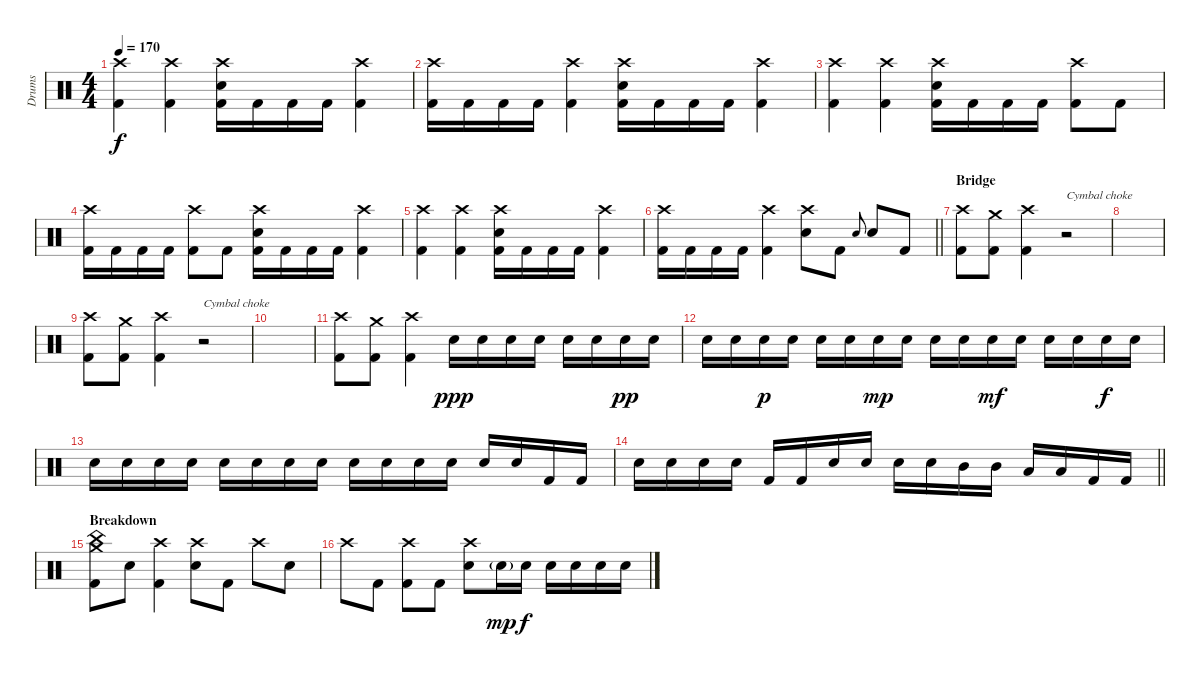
\track ("Drums" "Drums") {instrument percussion}
\staff {score}
\articulation defaults
\ts (4 4)
\tempo 170
\clef neutral
\ks c
("Crash high (hit)" "Kick (hit) 2").4{dy f} ("Crash high (hit)" "Kick (hit) 2").4 ("Crash high (hit)" "Electric Snare (hit)" "Kick (hit) 2").16 "Kick (hit) 2".16 "Kick (hit) 2".16 "Kick (hit) 2".16 ("Crash high (hit)" "Kick (hit) 2").4 |
("Crash high (hit)" "Kick (hit) 2").16 "Kick (hit) 2".16 "Kick (hit) 2".16 "Kick (hit) 2".16 ("Crash high (hit)" "Kick (hit) 2").4 ("Crash high (hit)" "Electric Snare (hit)" "Kick (hit) 2").16 "Kick (hit) 2".16 "Kick (hit) 2".16 "Kick (hit) 2".16 ("Crash high (hit)" "Kick (hit) 2").4 |
("Crash high (hit)" "Kick (hit) 2").4 ("Crash high (hit)" "Kick (hit) 2").4 ("Crash high (hit)" "Electric Snare (hit)" "Kick (hit) 2").16 "Kick (hit) 2".16 "Kick (hit) 2".16 "Kick (hit) 2".16 ("Crash high (hit)" "Kick (hit) 2").8 "Kick (hit) 2".8 |
("Crash high (hit)" "Kick (hit) 2").16 "Kick (hit) 2".16 "Kick (hit) 2".16 "Kick (hit) 2".16 ("Crash high (hit)" "Kick (hit) 2").8 "Kick (hit) 2".8 ("Crash high (hit)" "Electric Snare (hit)" "Kick (hit) 2").16 "Kick (hit) 2".16 "Kick (hit) 2".16 "Kick (hit) 2".16 ("Crash high (hit)" "Kick (hit) 2").4 |
("Crash high (hit)" "Kick (hit) 2").4 ("Crash high (hit)" "Kick (hit) 2").4 ("Crash high (hit)" "Electric Snare (hit)" "Kick (hit) 2").16 "Kick (hit) 2".16 "Kick (hit) 2".16 "Kick (hit) 2".16 ("Crash high (hit)" "Kick (hit) 2").4 |
\barLineRight lightlight
("Crash high (hit)" "Kick (hit) 2").16 "Kick (hit) 2".16 "Kick (hit) 2".16 "Kick (hit) 2".16 ("Crash high (hit)" "Kick (hit) 2").4 ("Crash high (hit)" "Electric Snare (hit)").8 "Kick (hit) 2".8 "Electric Snare (hit)".8{gr onbeat} "Electric Snare (hit)".8 "Kick (hit) 2".8 |
\section ("" "Bridge")
("Crash high (hit)" "Kick (hit) 2").8 ("Crash medium (hit)" "Kick (hit) 2").8 ("Crash high (hit)" "Kick (hit) 2").4 r.2{txt "Cymbal choke" volume 0} |
|
("Crash high (hit)" "Kick (hit) 2").8{volume 13} ("Crash medium (hit)" "Kick (hit) 2").8 ("Crash high (hit)" "Kick (hit) 2").4 r.2{txt "Cymbal choke" volume 0} |
|
("Crash high (hit)" "Kick (hit) 2").8{volume 13} ("Crash medium (hit)" "Kick (hit) 2").8 ("Crash high (hit)" "Kick (hit) 2").4 "Electric Snare (hit)".16{dy ppp} "Electric Snare (hit)".16 "Electric Snare (hit)".16 "Electric Snare (hit)".16 "Electric Snare (hit)".16 "Electric Snare (hit)".16 "Electric Snare (hit)".16{dy pp} "Electric Snare (hit)".16 |
"Electric Snare (hit)".16 "Electric Snare (hit)".16 "Electric Snare (hit)".16{dy p} "Electric Snare (hit)".16 "Electric Snare (hit)".16 "Electric Snare (hit)".16 "Electric Snare (hit)".16{dy mp} "Electric Snare (hit)".16 "Electric Snare (hit)".16 "Electric Snare (hit)".16 "Electric Snare (hit)".16{dy mf} "Electric Snare (hit)".16 "Electric Snare (hit)".16 "Electric Snare (hit)".16 "Electric Snare (hit)".16{dy f} "Electric Snare (hit)".16 |
"Electric Snare (hit)".16 "Electric Snare (hit)".16 "Electric Snare (hit)".16 "Electric Snare (hit)".16 "Electric Snare (hit)".16 "Electric Snare (hit)".16 "Electric Snare (hit)".16 "Electric Snare (hit)".16 "Electric Snare (hit)".16 "Electric Snare (hit)".16 "Electric Snare (hit)".16 "Electric Snare (hit)".16 "Electric Snare (hit)".16 "Electric Snare (hit)".16 "Kick (hit) 2".16 "Kick (hit) 2".16 |
\barLineRight lightlight "Electric Snare (hit)".16 "Electric Snare (hit)".16 "Electric Snare (hit)".16 "Electric Snare (hit)".16 "Kick (hit) 2".16 "Kick (hit) 2".16 "Electric Snare (hit)".16 "Electric Snare (hit)".16 "Electric Snare (hit)".16 "Electric Snare (hit)".16 "Mid Tom (hit)".16 "Mid Tom (hit)".16 "Low Tom (hit)".16 "Low Tom (hit)".16 "Kick (hit) 2".16 "Kick (hit) 2".16
|
\section ("" "Breakdown")
("Crash medium (hit)" "China (hit)" "Kick (hit) 2").8 "Electric Snare (hit)".8 ("Crash high (hit)" "Kick (hit) 2").4 ("Crash high (hit)" "Electric Snare (hit)").8 "Kick (hit) 2".8 "Crash high (hit)".8 "Electric Snare (hit)".8 |
"Crash high (hit)".8 "Kick (hit) 2".8 ("Crash high (hit)" "Kick (hit) 2").8 "Kick (hit) 2".8 ("Crash high (hit)" "Electric Snare (hit)").8 "Electric Snare (hit)"{g}.16{dy mp} "Electric Snare (hit)".16{dy f} "Electric Snare (hit)".16 "Electric Snare (hit)".16 "Electric Snare (hit)".16 "Electric Snare (hit)".16
